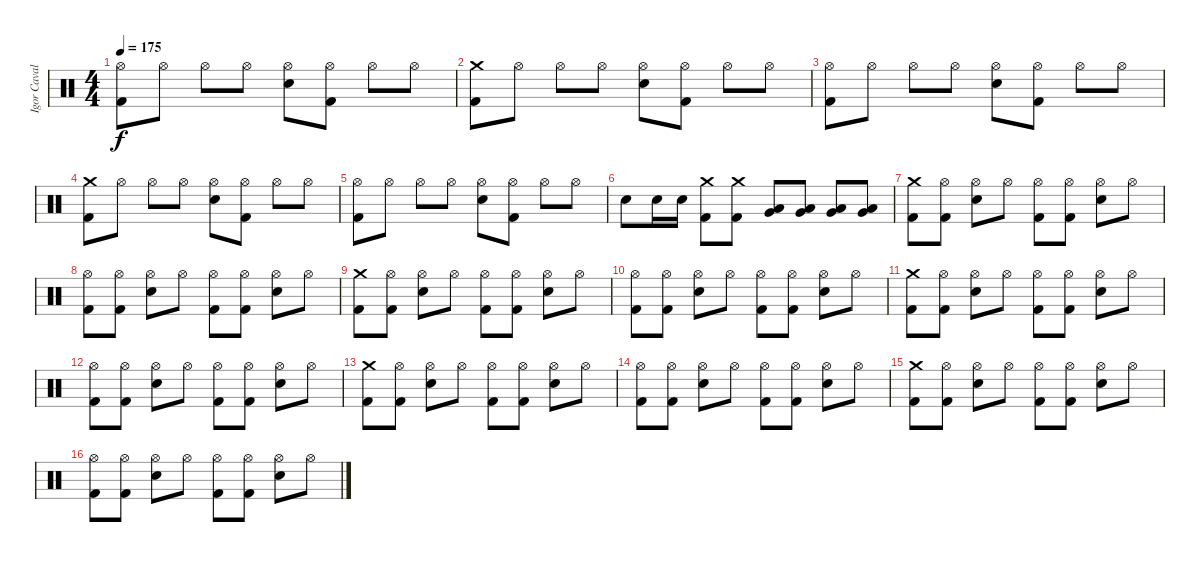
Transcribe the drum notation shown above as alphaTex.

\track ("Igor Cavalera" "Igor Caval") {instrument percussion}
\staff {score}
\articulation defaults
\ts (4 4)
\tempo 175
\clef neutral
\ks c
("Kick (hit) 2" "Hi-Hat (open)").8{dy f} "Hi-Hat (open)".8 "Hi-Hat (open)".8 "Hi-Hat (open)".8 ("Electric Snare (hit)" "Hi-Hat (open)").8 ("Kick (hit) 2" "Hi-Hat (open)").8 "Hi-Hat (open)".8 "Hi-Hat (open)".8 |
("Kick (hit) 2" "Crash medium (hit)").8 "Hi-Hat (open)".8 "Hi-Hat (open)".8 "Hi-Hat (open)".8 ("Electric Snare (hit)" "Hi-Hat (open)").8 ("Kick (hit) 2" "Hi-Hat (open)").8 "Hi-Hat (open)".8 "Hi-Hat (open)".8 |
("Kick (hit) 2" "Hi-Hat (open)").8 "Hi-Hat (open)".8 "Hi-Hat (open)".8 "Hi-Hat (open)".8 ("Electric Snare (hit)" "Hi-Hat (open)").8 ("Kick (hit) 2" "Hi-Hat (open)").8 "Hi-Hat (open)".8 "Hi-Hat (open)".8 |
("Kick (hit) 2" "Crash medium (hit)").8 "Hi-Hat (open)".8 "Hi-Hat (open)".8 "Hi-Hat (open)".8 ("Electric Snare (hit)" "Hi-Hat (open)").8 ("Kick (hit) 2" "Hi-Hat (open)").8 "Hi-Hat (open)".8 "Hi-Hat (open)".8 |
("Kick (hit) 2" "Hi-Hat (open)").8 "Hi-Hat (open)".8 "Hi-Hat (open)".8 "Hi-Hat (open)".8 ("Electric Snare (hit)" "Hi-Hat (open)").8 ("Kick (hit) 2" "Hi-Hat (open)").8 "Hi-Hat (open)".8 "Hi-Hat (open)".8 |
"Electric Snare (hit)".8 "Electric Snare (hit)".16 "Electric Snare (hit)".16 ("Crash medium (hit)" "Kick (hit) 2").8 ("Kick (hit) 2" "Crash medium (hit)").8 ("Low Floor Tom (hit)" "Very Low Tom (hit)").8 ("Low Floor Tom (hit)" "Very Low Tom (hit)").8 ("Low Floor Tom (hit)" "Very Low Tom (hit)").8 ("Low Floor Tom (hit)" "Very Low Tom (hit)").8 |
("Kick (hit) 2" "Crash medium (hit)").8 ("Kick (hit) 2" "Hi-Hat (open)").8 ("Electric Snare (hit)" "Hi-Hat (open)").8 "Hi-Hat (open)".8 ("Kick (hit) 2" "Hi-Hat (open)").8 ("Kick (hit) 2" "Hi-Hat (open)").8 ("Electric Snare (hit)" "Hi-Hat (open)").8 "Hi-Hat (open)".8 |
("Kick (hit) 2" "Hi-Hat (open)").8 ("Kick (hit) 2" "Hi-Hat (open)").8 ("Electric Snare (hit)" "Hi-Hat (open)").8 "Hi-Hat (open)".8 ("Kick (hit) 2" "Hi-Hat (open)").8 ("Kick (hit) 2" "Hi-Hat (open)").8 ("Electric Snare (hit)" "Hi-Hat (open)").8 "Hi-Hat (open)".8 |
("Kick (hit) 2" "Crash medium (hit)").8 ("Kick (hit) 2" "Hi-Hat (open)").8 ("Electric Snare (hit)" "Hi-Hat (open)").8 "Hi-Hat (open)".8 ("Kick (hit) 2" "Hi-Hat (open)").8 ("Kick (hit) 2" "Hi-Hat (open)").8 ("Electric Snare (hit)" "Hi-Hat (open)").8 "Hi-Hat (open)".8 |
("Kick (hit) 2" "Hi-Hat (open)").8 ("Kick (hit) 2" "Hi-Hat (open)").8 ("Electric Snare (hit)" "Hi-Hat (open)").8 "Hi-Hat (open)".8 ("Kick (hit) 2" "Hi-Hat (open)").8 ("Kick (hit) 2" "Hi-Hat (open)").8 ("Electric Snare (hit)" "Hi-Hat (open)").8 "Hi-Hat (open)".8 |
("Kick (hit) 2" "Crash medium (hit)").8 ("Kick (hit) 2" "Hi-Hat (open)").8 ("Electric Snare (hit)" "Hi-Hat (open)").8 "Hi-Hat (open)".8 ("Kick (hit) 2" "Hi-Hat (open)").8 ("Kick (hit) 2" "Hi-Hat (open)").8 ("Electric Snare (hit)" "Hi-Hat (open)").8 "Hi-Hat (open)".8 |
("Kick (hit) 2" "Hi-Hat (open)").8 ("Kick (hit) 2" "Hi-Hat (open)").8 ("Electric Snare (hit)" "Hi-Hat (open)").8 "Hi-Hat (open)".8 ("Kick (hit) 2" "Hi-Hat (open)").8 ("Kick (hit) 2" "Hi-Hat (open)").8 ("Electric Snare (hit)" "Hi-Hat (open)").8 "Hi-Hat (open)".8 |
("Kick (hit) 2" "Crash medium (hit)").8 ("Kick (hit) 2" "Hi-Hat (open)").8 ("Electric Snare (hit)" "Hi-Hat (open)").8 "Hi-Hat (open)".8 ("Kick (hit) 2" "Hi-Hat (open)").8 ("Kick (hit) 2" "Hi-Hat (open)").8 ("Electric Snare (hit)" "Hi-Hat (open)").8 "Hi-Hat (open)".8 |
("Kick (hit) 2" "Hi-Hat (open)").8 ("Kick (hit) 2" "Hi-Hat (open)").8 ("Electric Snare (hit)" "Hi-Hat (open)").8 "Hi-Hat (open)".8 ("Kick (hit) 2" "Hi-Hat (open)").8 ("Kick (hit) 2" "Hi-Hat (open)").8 ("Electric Snare (hit)" "Hi-Hat (open)").8 "Hi-Hat (open)".8 |
("Kick (hit) 2" "Crash medium (hit)").8 ("Kick (hit) 2" "Hi-Hat (open)").8 ("Electric Snare (hit)" "Hi-Hat (open)").8 "Hi-Hat (open)".8 ("Kick (hit) 2" "Hi-Hat (open)").8 ("Kick (hit) 2" "Hi-Hat (open)").8 ("Electric Snare (hit)" "Hi-Hat (open)").8 "Hi-Hat (open)".8 |
("Kick (hit) 2" "Hi-Hat (open)").8 ("Kick (hit) 2" "Hi-Hat (open)").8 ("Electric Snare (hit)" "Hi-Hat (open)").8 "Hi-Hat (open)".8 ("Kick (hit) 2" "Hi-Hat (open)").8 ("Kick (hit) 2" "Hi-Hat (open)").8 ("Electric Snare (hit)" "Hi-Hat (open)").8 "Hi-Hat (open)".8
